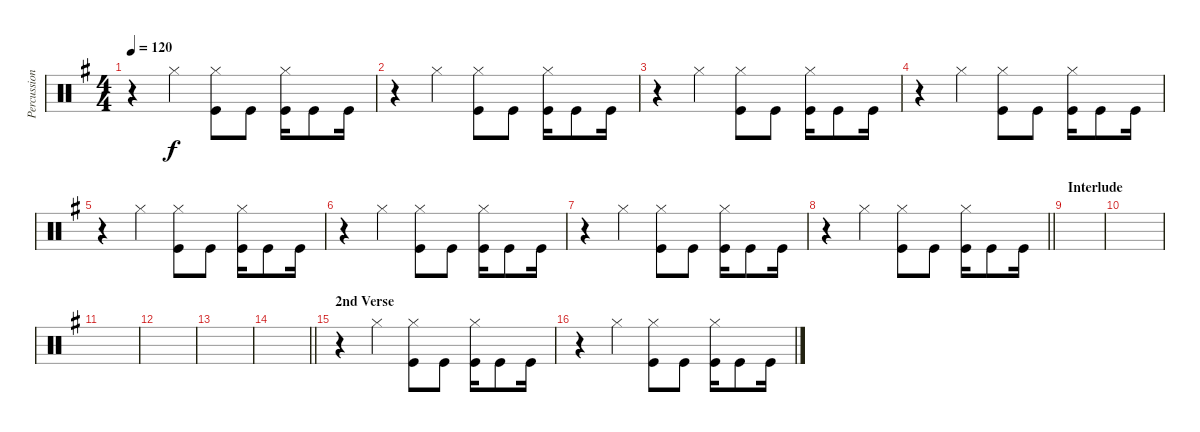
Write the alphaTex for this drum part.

\track ("Percussion" "Percussion") {instrument percussion}
\staff {score}
\articulation defaults
\ts (4 4)
\tempo 120
\clef neutral
\ks eminor
r.4{dy f} "Hi-Hat (closed)".4 ("Kick (hit)" "Hi-Hat (closed)").8 "Kick (hit)".8 ("Kick (hit)" "Hi-Hat (closed)").16 "Kick (hit)".8 "Kick (hit)".16 |
r.4 "Hi-Hat (closed)".4 ("Kick (hit)" "Hi-Hat (closed)").8 "Kick (hit)".8 ("Kick (hit)" "Hi-Hat (closed)").16 "Kick (hit)".8 "Kick (hit)".16 |
r.4 "Hi-Hat (closed)".4 ("Kick (hit)" "Hi-Hat (closed)").8 "Kick (hit)".8 ("Kick (hit)" "Hi-Hat (closed)").16 "Kick (hit)".8 "Kick (hit)".16 |
r.4 "Hi-Hat (closed)".4 ("Kick (hit)" "Hi-Hat (closed)").8 "Kick (hit)".8 ("Kick (hit)" "Hi-Hat (closed)").16 "Kick (hit)".8 "Kick (hit)".16 |
r.4 "Hi-Hat (closed)".4 ("Kick (hit)" "Hi-Hat (closed)").8 "Kick (hit)".8 ("Kick (hit)" "Hi-Hat (closed)").16 "Kick (hit)".8 "Kick (hit)".16 |
r.4 "Hi-Hat (closed)".4 ("Kick (hit)" "Hi-Hat (closed)").8 "Kick (hit)".8 ("Kick (hit)" "Hi-Hat (closed)").16 "Kick (hit)".8 "Kick (hit)".16 |
r.4 "Hi-Hat (closed)".4 ("Kick (hit)" "Hi-Hat (closed)").8 "Kick (hit)".8 ("Kick (hit)" "Hi-Hat (closed)").16 "Kick (hit)".8 "Kick (hit)".16 |
\barLineRight lightlight
r.4 "Hi-Hat (closed)".4 ("Kick (hit)" "Hi-Hat (closed)").8 "Kick (hit)".8 ("Kick (hit)" "Hi-Hat (closed)").16 "Kick (hit)".8 "Kick (hit)".16 |
\section ("" "Interlude")
|
|
|
|
|
\barLineRight lightlight
|
\section ("" "2nd Verse")
r.4 "Hi-Hat (closed)".4 ("Kick (hit)" "Hi-Hat (closed)").8 "Kick (hit)".8 ("Kick (hit)" "Hi-Hat (closed)").16 "Kick (hit)".8 "Kick (hit)".16 |
r.4 "Hi-Hat (closed)".4 ("Kick (hit)" "Hi-Hat (closed)").8 "Kick (hit)".8 ("Kick (hit)" "Hi-Hat (closed)").16 "Kick (hit)".8 "Kick (hit)".16
